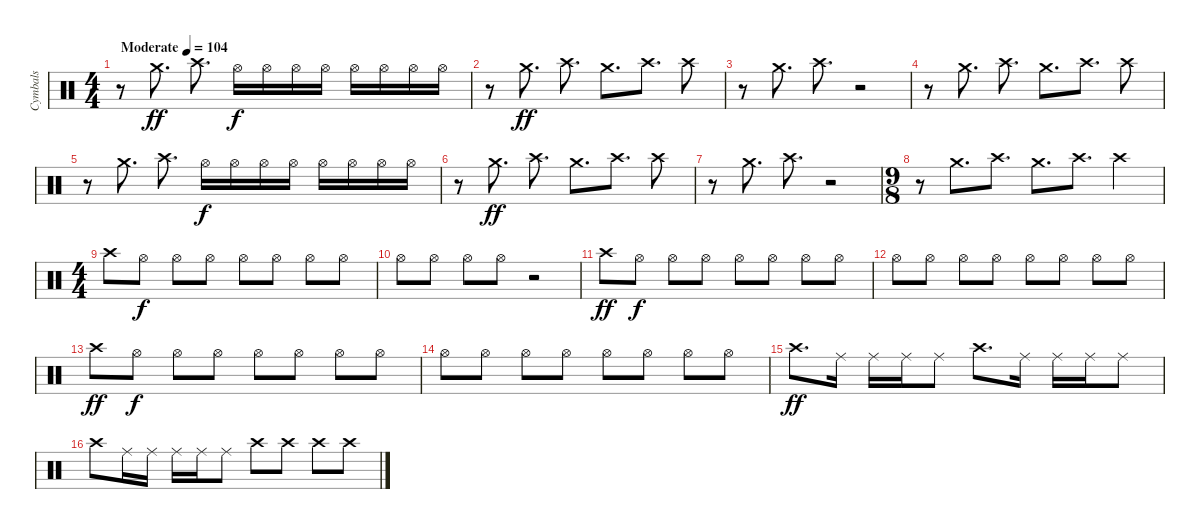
\track ("Cymbals" "Cymbals") {instrument percussion}
\staff {score}
\articulation defaults
\ts (4 4)
\tempo (104 "Moderate")
\clef neutral
\ks c
r.8{dy ff} "Crash medium (hit)".8{d} "Crash high (hit)".8{d} "Hi-Hat (open)".16{dy f} "Hi-Hat (open)".16 "Hi-Hat (open)".16 "Hi-Hat (open)".16 "Hi-Hat (open)".16 "Hi-Hat (open)".16 "Hi-Hat (open)".16 "Hi-Hat (open)".16 |
r.8 "Crash medium (hit)".8{d dy ff} "Crash high (hit)".8{d} "Crash medium (hit)".8{d} "Crash high (hit)".8{d} "Crash high (hit)".8 |
r.8 "Crash medium (hit)".8{d} "Crash high (hit)".8{d} r.2 |
r.8 "Crash medium (hit)".8{d} "Crash high (hit)".8{d} "Crash medium (hit)".8{d} "Crash high (hit)".8{d} "Crash high (hit)".8 |
r.8 "Crash medium (hit)".8{d} "Crash high (hit)".8{d} "Hi-Hat (open)".16{dy f} "Hi-Hat (open)".16 "Hi-Hat (open)".16 "Hi-Hat (open)".16 "Hi-Hat (open)".16 "Hi-Hat (open)".16 "Hi-Hat (open)".16 "Hi-Hat (open)".16 |
r.8 "Crash medium (hit)".8{d dy ff} "Crash high (hit)".8{d} "Crash medium (hit)".8{d} "Crash high (hit)".8{d} "Crash high (hit)".8 |
r.8 "Crash medium (hit)".8{d} "Crash high (hit)".8{d} r.2 |
\ts (9 8)
r.8 "Crash medium (hit)".8{d} "Crash high (hit)".8{d} "Crash medium (hit)".8{d} "Crash high (hit)".8{d} "Crash high (hit)".4 |
\ts (4 4)
"Crash high (hit)".8 "Hi-Hat (open)".8{dy f} "Hi-Hat (open)".8 "Hi-Hat (open)".8 "Hi-Hat (open)".8 "Hi-Hat (open)".8 "Hi-Hat (open)".8 "Hi-Hat (open)".8 |
"Hi-Hat (open)".8 "Hi-Hat (open)".8 "Hi-Hat (open)".8 "Hi-Hat (open)".8 r.2 |
"Crash high (hit)".8{dy ff} "Hi-Hat (open)".8{dy f} "Hi-Hat (open)".8 "Hi-Hat (open)".8 "Hi-Hat (open)".8 "Hi-Hat (open)".8 "Hi-Hat (open)".8 "Hi-Hat (open)".8 |
"Hi-Hat (open)".8 "Hi-Hat (open)".8 "Hi-Hat (open)".8 "Hi-Hat (open)".8 "Hi-Hat (open)".8 "Hi-Hat (open)".8 "Hi-Hat (open)".8 "Hi-Hat (open)".8 |
"Crash high (hit)".8{dy ff} "Hi-Hat (open)".8{dy f} "Hi-Hat (open)".8 "Hi-Hat (open)".8 "Hi-Hat (open)".8 "Hi-Hat (open)".8 "Hi-Hat (open)".8 "Hi-Hat (open)".8 |
"Hi-Hat (open)".8 "Hi-Hat (open)".8 "Hi-Hat (open)".8 "Hi-Hat (open)".8 "Hi-Hat (open)".8 "Hi-Hat (open)".8 "Hi-Hat (open)".8 "Hi-Hat (open)".8 |
"Crash high (hit)".8{d dy ff} "Ride (middle)".16 "Ride (middle)".16 "Ride (middle)".16 "Ride (middle)".8 "Crash high (hit)".8{d} "Ride (middle)".16 "Ride (middle)".16 "Ride (middle)".16 "Ride (middle)".8 |
"Crash high (hit)".8 "Ride (middle)".16 "Ride (middle)".16 "Ride (middle)".16 "Ride (middle)".16 "Ride (middle)".8 "Crash high (hit)".8 "Crash high (hit)".8 "Crash high (hit)".8 "Crash high (hit)".8
